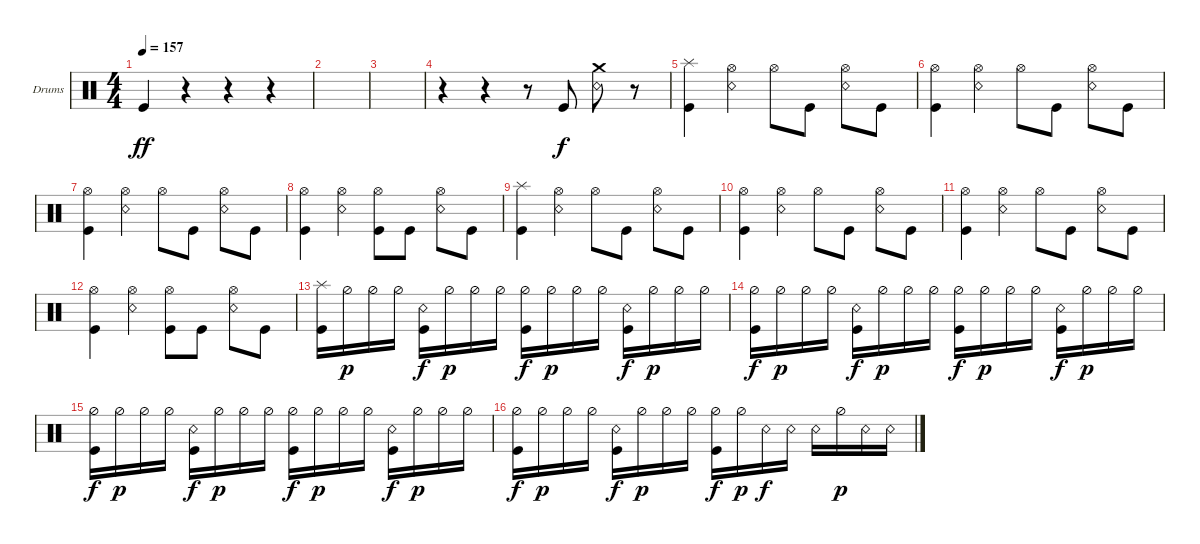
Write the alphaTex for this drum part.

\defaultSystemsLayout 4
\bracketExtendMode groupsimilarinstruments
\firstSystemTrackNameOrientation horizontal
\otherSystemsTrackNameOrientation horizontal
\track ("Drumkit" "Drums") {instrument percussion}
\staff {score}
\articulation defaults
\ts (4 4)
\tempo 157
\clef neutral
\ks c "Kick (hit)".4{dy ff}
r.4 r.4 r.4 |
|
|
r.4 r.4 r.8 "Kick (hit)".8{dy f} ("Snare (rim shot)" "Crash medium (hit)").8 r.8 |
("Splash (hit)" "Kick (hit)").4 ("Hi-Hat (open)" "Snare (rim shot)").4 "Hi-Hat (open)".8 "Kick (hit)".8 ("Hi-Hat (open)" "Snare (rim shot)").8 "Kick (hit)".8 |
("Kick (hit)" "Hi-Hat (open)").4 ("Hi-Hat (open)" "Snare (rim shot)").4 "Hi-Hat (open)".8 "Kick (hit)".8 ("Hi-Hat (open)" "Snare (rim shot)").8 "Kick (hit)".8 |
("Kick (hit)" "Hi-Hat (open)").4 ("Hi-Hat (open)" "Snare (rim shot)").4 "Hi-Hat (open)".8 "Kick (hit)".8 ("Hi-Hat (open)" "Snare (rim shot)").8 "Kick (hit)".8 |
("Kick (hit)" "Hi-Hat (open)").4 ("Hi-Hat (open)" "Snare (rim shot)").4 ("Hi-Hat (open)" "Kick (hit)").8 "Kick (hit)".8 ("Hi-Hat (open)" "Snare (rim shot)").8 "Kick (hit)".8 |
("Splash (hit)" "Kick (hit)").4 ("Hi-Hat (open)" "Snare (rim shot)").4 "Hi-Hat (open)".8 "Kick (hit)".8 ("Hi-Hat (open)" "Snare (rim shot)").8 "Kick (hit)".8 |
("Kick (hit)" "Hi-Hat (open)").4 ("Hi-Hat (open)" "Snare (rim shot)").4 "Hi-Hat (open)".8 "Kick (hit)".8 ("Hi-Hat (open)" "Snare (rim shot)").8 "Kick (hit)".8 |
("Kick (hit)" "Hi-Hat (open)").4 ("Hi-Hat (open)" "Snare (rim shot)").4 "Hi-Hat (open)".8 "Kick (hit)".8 ("Hi-Hat (open)" "Snare (rim shot)").8 "Kick (hit)".8 |
("Kick (hit)" "Hi-Hat (open)").4 ("Hi-Hat (open)" "Snare (rim shot)").4 ("Hi-Hat (open)" "Kick (hit)").8 "Kick (hit)".8 ("Hi-Hat (open)" "Snare (rim shot)").8 "Kick (hit)".8 |
("Kick (hit)" "Splash (hit)").16 "Hi-Hat (half)".16{dy p} "Hi-Hat (half)".16 "Hi-Hat (half)".16 ("Kick (hit)" "Snare (rim shot)").16{dy f} "Hi-Hat (half)".16{dy p} "Hi-Hat (half)".16 "Hi-Hat (half)".16 ("Hi-Hat (half)" "Kick (hit)").16{dy f} "Hi-Hat (half)".16{dy p} "Hi-Hat (half)".16 "Hi-Hat (half)".16 ("Kick (hit)" "Snare (rim shot)").16{dy f} "Hi-Hat (half)".16{dy p} "Hi-Hat (half)".16 "Hi-Hat (half)".16 |
("Kick (hit)" "Hi-Hat (half)").16{dy f} "Hi-Hat (half)".16{dy p} "Hi-Hat (half)".16 "Hi-Hat (half)".16 ("Kick (hit)" "Snare (rim shot)").16{dy f} "Hi-Hat (half)".16{dy p} "Hi-Hat (half)".16 "Hi-Hat (half)".16 ("Hi-Hat (half)" "Kick (hit)").16{dy f} "Hi-Hat (half)".16{dy p} "Hi-Hat (half)".16 "Hi-Hat (half)".16 ("Kick (hit)" "Snare (rim shot)").16{dy f} "Hi-Hat (half)".16{dy p} "Hi-Hat (half)".16 "Hi-Hat (half)".16 |
("Kick (hit)" "Hi-Hat (half)").16{dy f} "Hi-Hat (half)".16{dy p} "Hi-Hat (half)".16 "Hi-Hat (half)".16 ("Kick (hit)" "Snare (rim shot)").16{dy f} "Hi-Hat (half)".16{dy p} "Hi-Hat (half)".16 "Hi-Hat (half)".16 ("Hi-Hat (half)" "Kick (hit)").16{dy f} "Hi-Hat (half)".16{dy p} "Hi-Hat (half)".16 "Hi-Hat (half)".16 ("Kick (hit)" "Snare (rim shot)").16{dy f} "Hi-Hat (half)".16{dy p} "Hi-Hat (half)".16 "Hi-Hat (half)".16 |
("Kick (hit)" "Hi-Hat (half)").16{dy f} "Hi-Hat (half)".16{dy p} "Hi-Hat (half)".16 "Hi-Hat (half)".16 ("Kick (hit)" "Snare (rim shot)").16{dy f} "Hi-Hat (half)".16{dy p} "Hi-Hat (half)".16 "Hi-Hat (half)".16 ("Hi-Hat (half)" "Kick (hit)").16{dy f} "Hi-Hat (half)".16{dy p} "Snare (rim shot)".16{dy f} "Snare (rim shot)".16 "Snare (rim shot)".16 "Hi-Hat (half)".16{dy p} "Snare (rim shot)".16 "Snare (rim shot)".16
